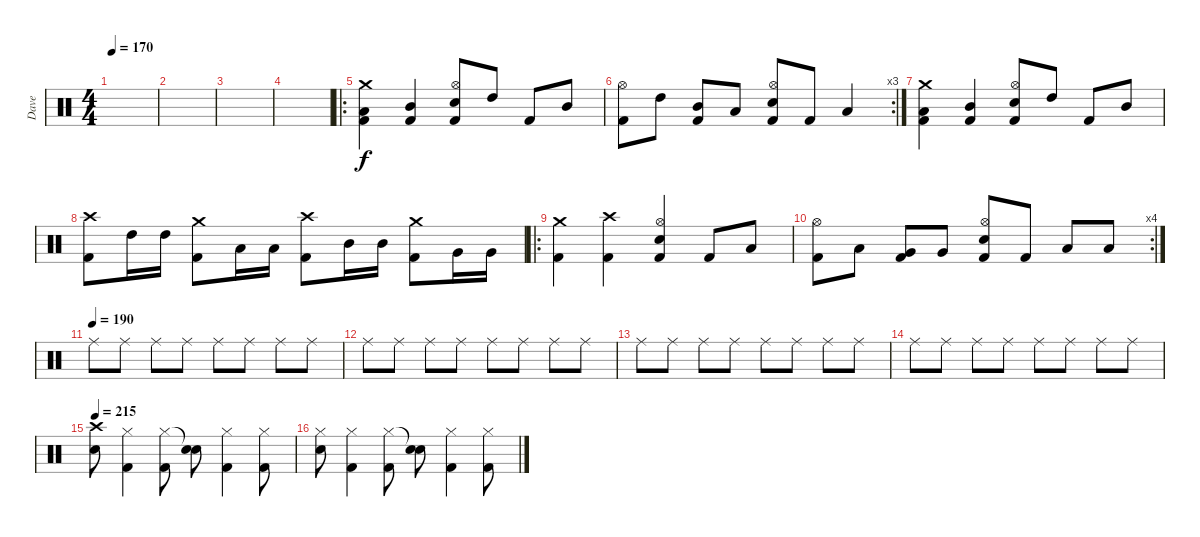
\track ("Dave" "Dave") {instrument percussion}
\staff {score}
\articulation defaults
\ts (4 4)
\tempo 170
\clef neutral
\ks c
|
|
|
|
\ro
("Crash medium (hit)" "Low Tom (hit)" "Kick (hit) 2").4 ("Mid Tom (hit)" "Kick (hit) 2").4 ("Hi-Hat (open)" "Snare (hit) 2" "Kick (hit) 2").8 "High Tom (hit)".8 "Kick (hit) 2".8 "Mid Tom (hit)".8 |
\rc 3
("Hi-Hat (open)" "Kick (hit) 2").8 "High Tom (hit)".8 ("Mid Tom (hit)" "Kick (hit) 2").8 "Low Tom (hit)".8 ("Hi-Hat (open)" "Snare (hit) 2" "Kick (hit) 2").8 "Kick (hit) 2".8 "Low Tom (hit)".4 |
("Crash medium (hit)" "Low Tom (hit)" "Kick (hit) 2").4 ("Mid Tom (hit)" "Kick (hit) 2").4 ("Hi-Hat (open)" "Snare (hit) 2" "Kick (hit) 2").8 "High Tom (hit)".8 "Kick (hit) 2".8 "Mid Tom (hit)".8 |
("Crash high (hit)" "Kick (hit) 2").8 "High Tom (hit)".16 "High Tom (hit)".16 ("Crash medium (hit)" "Kick (hit) 2").8 "Low Tom (hit)".16 "Low Tom (hit)".16 ("Crash high (hit)" "Kick (hit) 2").8 "Mid Tom (hit)".16 "Mid Tom (hit)".16 ("Crash medium (hit)" "Kick (hit) 2").8 "Very Low Tom (hit)".16 "Very Low Tom (hit)".16 |
\ro
("Crash medium (hit)" "Kick (hit) 2").4 ("Crash high (hit)" "Kick (hit) 2").4 ("Hi-Hat (open)" "Snare (hit) 2" "Kick (hit) 2").4 "Kick (hit) 2".8 "Low Tom (hit)".8 |
\rc 4
("Hi-Hat (open)" "Kick (hit) 2").8 "Low Tom (hit)".8 ("Very Low Tom (hit)" "Kick (hit) 2").8 "Very Low Tom (hit)".8 ("Hi-Hat (open)" "Snare (hit) 2" "Kick (hit) 2").8 "Kick (hit) 2".8 "Low Tom (hit)".8 "Low Tom (hit)".8 |
\tempo (190)
"Ride (middle)".8 "Ride (middle)".8 "Ride (middle)".8 "Ride (middle)".8 "Ride (middle)".8 "Ride (middle)".8 "Ride (middle)".8 "Ride (middle)".8 |
"Ride (middle)".8 "Ride (middle)".8 "Ride (middle)".8 "Ride (middle)".8 "Ride (middle)".8 "Ride (middle)".8 "Ride (middle)".8 "Ride (middle)".8 |
"Ride (middle)".8 "Ride (middle)".8 "Ride (middle)".8 "Ride (middle)".8 "Ride (middle)".8 "Ride (middle)".8 "Ride (middle)".8 "Ride (middle)".8 |
"Ride (middle)".8 "Ride (middle)".8 "Ride (middle)".8 "Ride (middle)".8 "Ride (middle)".8 "Ride (middle)".8 "Ride (middle)".8 "Ride (middle)".8 |
\tempo 215
("Crash high (hit)" "Electric Snare (hit)").8 ("Hi-Hat (closed)" "Kick (hit) 2").4 ("Hi-Hat (closed)" "Kick (hit) 2").8 ("Snare (hit)"{t} "Electric Snare (hit)").8 ("Hi-Hat (closed)" "Kick (hit) 2").4 ("Hi-Hat (closed)" "Kick (hit) 2").8 |
("Hi-Hat (closed)" "Electric Snare (hit)").8 ("Hi-Hat (closed)" "Kick (hit) 2").4 ("Hi-Hat (closed)" "Kick (hit) 2").8 ("Snare (hit)"{t} "Electric Snare (hit)").8 ("Hi-Hat (closed)" "Kick (hit) 2").4 ("Hi-Hat (closed)" "Kick (hit) 2").8
